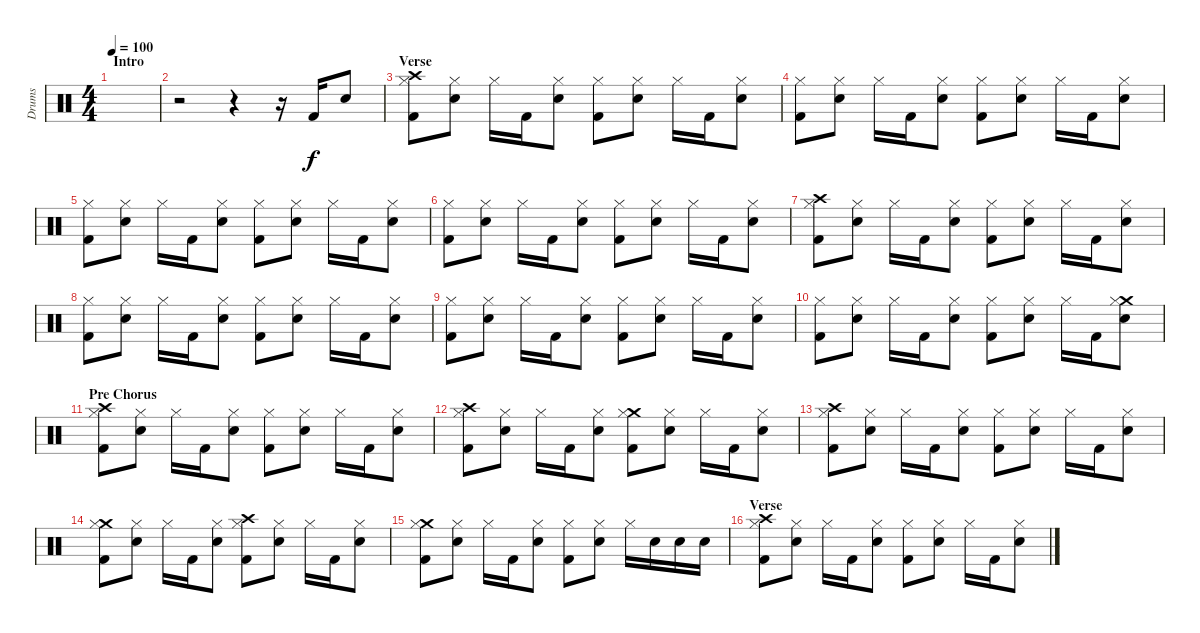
\track ("Drums" "Drums") {instrument percussion}
\staff {score}
\articulation defaults
\ts (4 4)
\section ("" "Intro")
\tempo 100
\clef neutral
\ks c
|
r.2 r.4 r.16 "Kick (hit) 2".16 "Snare (hit) 2".8 |
\section ("" "Verse")
("Crash high (hit)" "Hi-Hat (closed)" "Kick (hit) 2").8 ("Hi-Hat (closed)" "Snare (hit) 2").8 "Hi-Hat (closed)".16 "Kick (hit) 2".16 ("Hi-Hat (closed)" "Snare (hit) 2").8 ("Hi-Hat (closed)" "Kick (hit) 2").8 ("Hi-Hat (closed)" "Snare (hit) 2").8 "Hi-Hat (closed)".16 "Kick (hit) 2".16 ("Hi-Hat (closed)" "Snare (hit) 2").8 |
("Hi-Hat (closed)" "Kick (hit) 2").8 ("Hi-Hat (closed)" "Snare (hit) 2").8 "Hi-Hat (closed)".16 "Kick (hit) 2".16 ("Hi-Hat (closed)" "Snare (hit) 2").8 ("Hi-Hat (closed)" "Kick (hit) 2").8 ("Hi-Hat (closed)" "Snare (hit) 2").8 "Hi-Hat (closed)".16 "Kick (hit) 2".16 ("Hi-Hat (closed)" "Snare (hit) 2").8 |
("Hi-Hat (closed)" "Kick (hit) 2").8 ("Hi-Hat (closed)" "Snare (hit) 2").8 "Hi-Hat (closed)".16 "Kick (hit) 2".16 ("Hi-Hat (closed)" "Snare (hit) 2").8 ("Hi-Hat (closed)" "Kick (hit) 2").8 ("Hi-Hat (closed)" "Snare (hit) 2").8 "Hi-Hat (closed)".16 "Kick (hit) 2".16 ("Hi-Hat (closed)" "Snare (hit) 2").8 |
("Hi-Hat (closed)" "Kick (hit) 2").8 ("Hi-Hat (closed)" "Snare (hit) 2").8 "Hi-Hat (closed)".16 "Kick (hit) 2".16 ("Hi-Hat (closed)" "Snare (hit) 2").8 ("Hi-Hat (closed)" "Kick (hit) 2").8 ("Hi-Hat (closed)" "Snare (hit) 2").8 "Hi-Hat (closed)".16 "Kick (hit) 2".16 ("Hi-Hat (closed)" "Snare (hit) 2").8 |
("Crash high (hit)" "Hi-Hat (closed)" "Kick (hit) 2").8 ("Hi-Hat (closed)" "Snare (hit) 2").8 "Hi-Hat (closed)".16 "Kick (hit) 2".16 ("Hi-Hat (closed)" "Snare (hit) 2").8 ("Hi-Hat (closed)" "Kick (hit) 2").8 ("Hi-Hat (closed)" "Snare (hit) 2").8 "Hi-Hat (closed)".16 "Kick (hit) 2".16 ("Hi-Hat (closed)" "Snare (hit) 2").8 |
("Hi-Hat (closed)" "Kick (hit) 2").8 ("Hi-Hat (closed)" "Snare (hit) 2").8 "Hi-Hat (closed)".16 "Kick (hit) 2".16 ("Hi-Hat (closed)" "Snare (hit) 2").8 ("Hi-Hat (closed)" "Kick (hit) 2").8 ("Hi-Hat (closed)" "Snare (hit) 2").8 "Hi-Hat (closed)".16 "Kick (hit) 2".16 ("Hi-Hat (closed)" "Snare (hit) 2").8 |
("Hi-Hat (closed)" "Kick (hit) 2").8 ("Hi-Hat (closed)" "Snare (hit) 2").8 "Hi-Hat (closed)".16 "Kick (hit) 2".16 ("Hi-Hat (closed)" "Snare (hit) 2").8 ("Hi-Hat (closed)" "Kick (hit) 2").8 ("Hi-Hat (closed)" "Snare (hit) 2").8 "Hi-Hat (closed)".16 "Kick (hit) 2".16 ("Hi-Hat (closed)" "Snare (hit) 2").8 |
("Hi-Hat (closed)" "Kick (hit) 2").8 ("Hi-Hat (closed)" "Snare (hit) 2").8 "Hi-Hat (closed)".16 "Kick (hit) 2".16 ("Hi-Hat (closed)" "Snare (hit) 2").8 ("Hi-Hat (closed)" "Kick (hit) 2").8 ("Hi-Hat (closed)" "Snare (hit) 2").8 "Hi-Hat (closed)".16 "Kick (hit) 2".16 ("Crash medium (hit)" "Hi-Hat (closed)" "Snare (hit) 2").8 |
\section ("" "Pre Chorus")
("Crash high (hit)" "Hi-Hat (closed)" "Kick (hit) 2").8 ("Hi-Hat (closed)" "Snare (hit) 2").8 "Hi-Hat (closed)".16 "Kick (hit) 2".16 ("Hi-Hat (closed)" "Snare (hit) 2").8 ("Hi-Hat (closed)" "Kick (hit) 2").8 ("Hi-Hat (closed)" "Snare (hit) 2").8 "Hi-Hat (closed)".16 "Kick (hit) 2".16 ("Hi-Hat (closed)" "Snare (hit) 2").8 |
("Crash high (hit)" "Hi-Hat (closed)" "Kick (hit) 2").8 ("Hi-Hat (closed)" "Snare (hit) 2").8 "Hi-Hat (closed)".16 "Kick (hit) 2".16 ("Hi-Hat (closed)" "Snare (hit) 2").8 ("Crash medium (hit)" "Hi-Hat (closed)" "Kick (hit) 2").8 ("Hi-Hat (closed)" "Snare (hit) 2").8 "Hi-Hat (closed)".16 "Kick (hit) 2".16 ("Hi-Hat (closed)" "Snare (hit) 2").8 |
("Crash high (hit)" "Hi-Hat (closed)" "Kick (hit) 2").8 ("Hi-Hat (closed)" "Snare (hit) 2").8 "Hi-Hat (closed)".16 "Kick (hit) 2".16 ("Hi-Hat (closed)" "Snare (hit) 2").8 ("Hi-Hat (closed)" "Kick (hit) 2").8 ("Hi-Hat (closed)" "Snare (hit) 2").8 "Hi-Hat (closed)".16 "Kick (hit) 2".16 ("Hi-Hat (closed)" "Snare (hit) 2").8 |
("Crash medium (hit)" "Hi-Hat (closed)" "Kick (hit) 2").8 ("Hi-Hat (closed)" "Snare (hit) 2").8 "Hi-Hat (closed)".16 "Kick (hit) 2".16 ("Hi-Hat (closed)" "Snare (hit) 2").8 ("Crash high (hit)" "Hi-Hat (closed)" "Kick (hit) 2").8 ("Hi-Hat (closed)" "Snare (hit) 2").8 "Hi-Hat (closed)".16 "Kick (hit) 2".16 ("Hi-Hat (closed)" "Snare (hit) 2").8 |
("Crash medium (hit)" "Hi-Hat (closed)" "Kick (hit) 2").8 ("Hi-Hat (closed)" "Snare (hit) 2").8 "Hi-Hat (closed)".16 "Kick (hit) 2".16 ("Hi-Hat (closed)" "Snare (hit) 2").8 ("Hi-Hat (closed)" "Kick (hit) 2").8 ("Hi-Hat (closed)" "Snare (hit) 2").8 "Hi-Hat (closed)".16 "Snare (hit) 2".16 "Snare (hit) 2".16 "Snare (hit) 2".16 |
\section ("" "Verse")
("Crash high (hit)" "Hi-Hat (closed)" "Kick (hit) 2").8 ("Hi-Hat (closed)" "Snare (hit) 2").8 "Hi-Hat (closed)".16 "Kick (hit) 2".16 ("Hi-Hat (closed)" "Snare (hit) 2").8 ("Hi-Hat (closed)" "Kick (hit) 2").8 ("Hi-Hat (closed)" "Snare (hit) 2").8 "Hi-Hat (closed)".16 "Kick (hit) 2".16 ("Hi-Hat (closed)" "Snare (hit) 2").8
